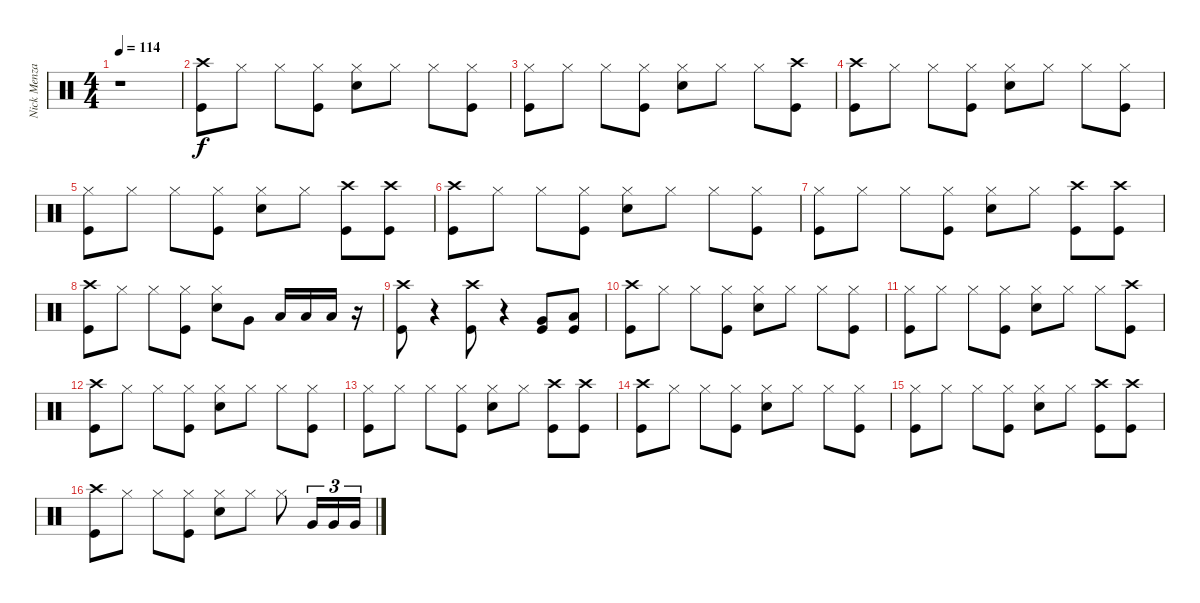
\track ("Nick Menza" "Nick Menza") {instrument percussion}
\staff {score}
\articulation defaults
\ts (4 4)
\tempo 114
\clef neutral
\ks c
r.1{dy f} |
("Crash high (hit)" "Kick (hit)").8 "Hi-Hat (closed)".8 "Hi-Hat (closed)".8 ("Hi-Hat (closed)" "Kick (hit)").8 ("Hi-Hat (closed)" "Snare (hit) 2").8 "Hi-Hat (closed)".8 "Hi-Hat (closed)".8 ("Hi-Hat (closed)" "Kick (hit)").8 |
("Hi-Hat (closed)" "Kick (hit)").8 "Hi-Hat (closed)".8 "Hi-Hat (closed)".8 ("Hi-Hat (closed)" "Kick (hit)").8 ("Hi-Hat (closed)" "Snare (hit) 2").8 "Hi-Hat (closed)".8 "Hi-Hat (closed)".8 ("Crash high (hit)" "Kick (hit)").8 |
("Crash high (hit)" "Kick (hit)").8 "Hi-Hat (closed)".8 "Hi-Hat (closed)".8 ("Hi-Hat (closed)" "Kick (hit)").8 ("Hi-Hat (closed)" "Snare (hit) 2").8 "Hi-Hat (closed)".8 "Hi-Hat (closed)".8 ("Hi-Hat (closed)" "Kick (hit)").8 |
("Hi-Hat (closed)" "Kick (hit)").8 "Hi-Hat (closed)".8 "Hi-Hat (closed)".8 ("Hi-Hat (closed)" "Kick (hit)").8 ("Hi-Hat (closed)" "Snare (hit) 2").8 "Hi-Hat (closed)".8 ("Crash high (hit)" "Kick (hit)").8 ("Crash high (hit)" "Kick (hit)").8 |
("Crash high (hit)" "Kick (hit)").8 "Hi-Hat (closed)".8 "Hi-Hat (closed)".8 ("Hi-Hat (closed)" "Kick (hit)").8 ("Hi-Hat (closed)" "Snare (hit) 2").8 "Hi-Hat (closed)".8 "Hi-Hat (closed)".8 ("Hi-Hat (closed)" "Kick (hit)").8 |
("Hi-Hat (closed)" "Kick (hit)").8 "Hi-Hat (closed)".8 "Hi-Hat (closed)".8 ("Hi-Hat (closed)" "Kick (hit)").8 ("Hi-Hat (closed)" "Snare (hit) 2").8 "Hi-Hat (closed)".8 ("Crash high (hit)" "Kick (hit)").8 ("Crash high (hit)" "Kick (hit)").8 |
("Crash high (hit)" "Kick (hit)").8 "Hi-Hat (closed)".8 "Hi-Hat (closed)".8 ("Hi-Hat (closed)" "Kick (hit)").8 ("Hi-Hat (closed)" "Snare (hit) 2").8 "Very Low Tom (hit)".8 "Low Floor Tom (hit)".16 "Low Floor Tom (hit)".16 "Low Floor Tom (hit)".16 r.16 |
("Crash high (hit)" "Kick (hit)").8 r.4 ("Crash high (hit)" "Kick (hit)").8 r.4 ("Very Low Tom (hit)" "Kick (hit)").8 ("Low Floor Tom (hit)" "Kick (hit)").8 |
("Crash high (hit)" "Kick (hit)").8 "Hi-Hat (closed)".8 "Hi-Hat (closed)".8 ("Hi-Hat (closed)" "Kick (hit)").8 ("Hi-Hat (closed)" "Snare (hit) 2").8 "Hi-Hat (closed)".8 "Hi-Hat (closed)".8 ("Hi-Hat (closed)" "Kick (hit)").8 |
("Hi-Hat (closed)" "Kick (hit)").8 "Hi-Hat (closed)".8 "Hi-Hat (closed)".8 ("Hi-Hat (closed)" "Kick (hit)").8 ("Hi-Hat (closed)" "Snare (hit) 2").8 "Hi-Hat (closed)".8 "Hi-Hat (closed)".8 ("Crash high (hit)" "Kick (hit)").8 |
("Crash high (hit)" "Kick (hit)").8 "Hi-Hat (closed)".8 "Hi-Hat (closed)".8 ("Hi-Hat (closed)" "Kick (hit)").8 ("Hi-Hat (closed)" "Snare (hit) 2").8 "Hi-Hat (closed)".8 "Hi-Hat (closed)".8 ("Hi-Hat (closed)" "Kick (hit)").8 |
("Hi-Hat (closed)" "Kick (hit)").8 "Hi-Hat (closed)".8 "Hi-Hat (closed)".8 ("Hi-Hat (closed)" "Kick (hit)").8 ("Hi-Hat (closed)" "Snare (hit) 2").8 "Hi-Hat (closed)".8 ("Crash high (hit)" "Kick (hit)").8 ("Crash high (hit)" "Kick (hit)").8 |
("Crash high (hit)" "Kick (hit)").8 "Hi-Hat (closed)".8 "Hi-Hat (closed)".8 ("Hi-Hat (closed)" "Kick (hit)").8 ("Hi-Hat (closed)" "Snare (hit) 2").8 "Hi-Hat (closed)".8 "Hi-Hat (closed)".8 ("Hi-Hat (closed)" "Kick (hit)").8 |
("Hi-Hat (closed)" "Kick (hit)").8 "Hi-Hat (closed)".8 "Hi-Hat (closed)".8 ("Hi-Hat (closed)" "Kick (hit)").8 ("Hi-Hat (closed)" "Snare (hit) 2").8 "Hi-Hat (closed)".8 ("Crash high (hit)" "Kick (hit)").8 ("Crash high (hit)" "Kick (hit)").8 |
("Crash high (hit)" "Kick (hit)").8 "Hi-Hat (closed)".8 "Hi-Hat (closed)".8 ("Hi-Hat (closed)" "Kick (hit)").8 ("Hi-Hat (closed)" "Snare (hit) 2").8 "Hi-Hat (closed)".8 "Hi-Hat (closed)".8 "Very Low Tom (hit)".16{tu (3 2)} "Very Low Tom (hit)".16{tu (3 2)} "Very Low Tom (hit)".16{tu (3 2)}
